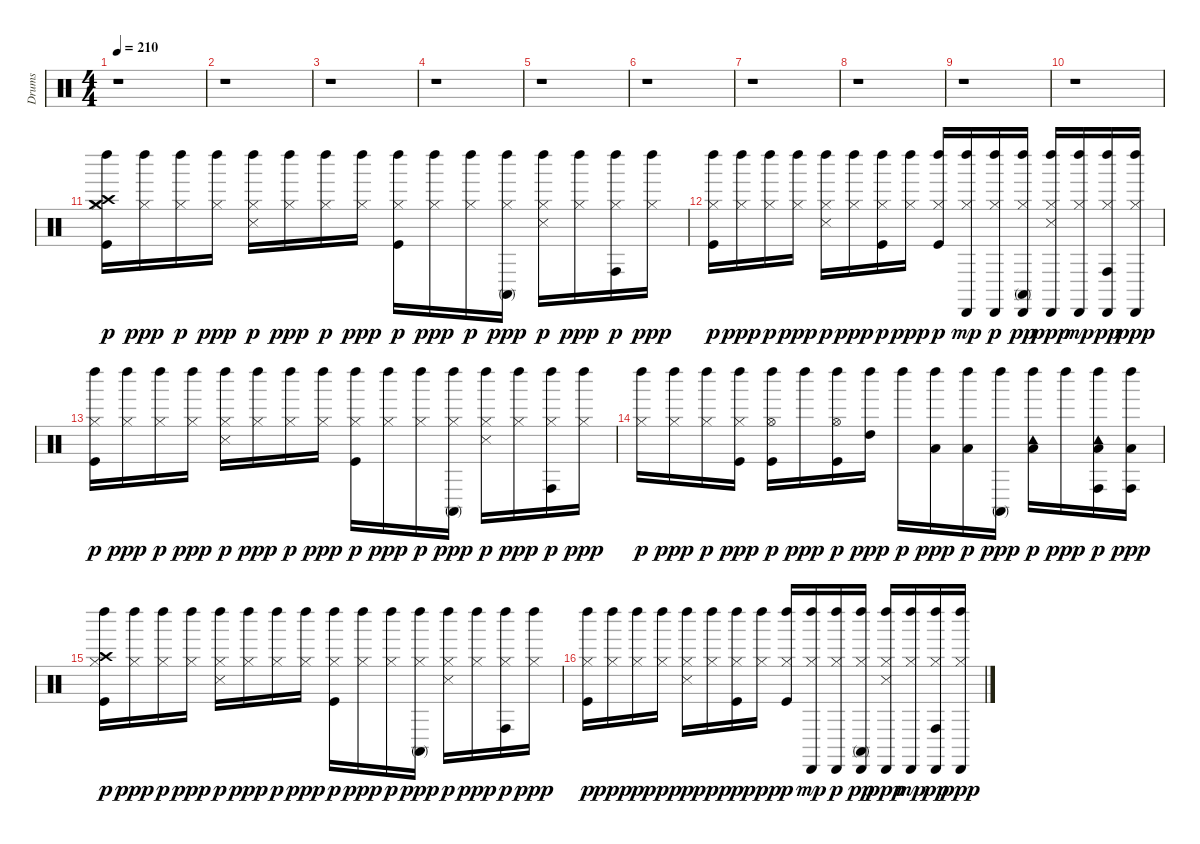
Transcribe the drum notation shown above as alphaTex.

\track ("Drums" "Drums") {instrument percussion}
\staff {score}
\articulation defaults
\ts (4 4)
\tempo 210
\clef neutral
\ks c
r.1{dy f} |
r.1 |
r.1 |
r.1 |
r.1 |
r.1 |
r.1 |
r.1 |
r.1 |
r.1 |
("Crash medium (hit)" "Kick (hit)" "Hi-Hat (closed)" "Crash high (hit)" "Left Maraca (hit)").16{dy p} ("Hi-Hat (closed)" "Left Maraca (hit)").16{dy ppp} ("Hi-Hat (closed)" "Left Maraca (hit)").16{dy p} ("Hi-Hat (closed)" "Left Maraca (hit)").16{dy ppp} ("Hi-Hat (closed)" "Snare (side stick) 3" "Left Maraca (hit)").16{dy p} ("Hi-Hat (closed)" "Left Maraca (hit)").16{dy ppp} ("Hi-Hat (closed)" "Left Maraca (hit)").16{dy p} ("Hi-Hat (closed)" "Left Maraca (hit)").16{dy ppp} ("Kick (hit)" "Hi-Hat (closed)" "Left Maraca (hit)").16{dy p} ("Hi-Hat (closed)" "Left Maraca (hit)").16{dy ppp} ("Hi-Hat (closed)" "Left Maraca (hit)").16{dy p} ("Hi-Hat (closed)" "Conga high (mute)" "Left Maraca (hit)").16{dy ppp} ("Hi-Hat (closed)" "Snare (side stick) 3" "Left Maraca (hit)").16{dy p} ("Hi-Hat (closed)" "Left Maraca (hit)").16{dy ppp} ("Hi-Hat (closed)" "Conga high (hit)" "Left Maraca (hit)").16{dy p} ("Hi-Hat (closed)" "Left Maraca (hit)").16{dy ppp} |
("Kick (hit)" "Hi-Hat (closed)" "Left Maraca (hit)").16{dy p} ("Hi-Hat (closed)" "Left Maraca (hit)").16{dy ppp} ("Hi-Hat (closed)" "Left Maraca (hit)").16{dy p} ("Hi-Hat (closed)" "Left Maraca (hit)").16{dy ppp} ("Hi-Hat (closed)" "Snare (side stick) 3" "Left Maraca (hit)").16{dy p} ("Hi-Hat (closed)" "Left Maraca (hit)").16{dy ppp} ("Kick (hit)" "Hi-Hat (closed)" "Left Maraca (hit)").16{dy p} ("Hi-Hat (closed)" "Left Maraca (hit)").16{dy ppp} ("Kick (hit)" "Hi-Hat (closed)" "Left Maraca (hit)").16{dy p} ("Hi-Hat (closed)" "Left Maraca (hit)" "Cabasa (hit)").16{dy mp} ("Hi-Hat (closed)" "Left Maraca (hit)" "Cabasa (hit)").16{dy p} ("Hi-Hat (closed)" "Conga high (mute)" "Left Maraca (hit)" "Cabasa (hit)").16{dy pp} ("Hi-Hat (closed)" "Snare (side stick) 3" "Left Maraca (hit)" "Cabasa (hit)").16{dy ppp} ("Hi-Hat (closed)" "Left Maraca (hit)" "Cabasa (hit)").16{dy mp} ("Hi-Hat (closed)" "Conga high (hit)" "Left Maraca (hit)" "Cabasa (hit)").16{dy pp} ("Hi-Hat (closed)" "Left Maraca (hit)" "Cabasa (hit)").16{dy ppp} |
("Kick (hit)" "Hi-Hat (closed)" "Left Maraca (hit)").16{dy p} ("Hi-Hat (closed)" "Left Maraca (hit)").16{dy ppp} ("Hi-Hat (closed)" "Left Maraca (hit)").16{dy p} ("Hi-Hat (closed)" "Left Maraca (hit)").16{dy ppp} ("Hi-Hat (closed)" "Snare (side stick) 3" "Left Maraca (hit)").16{dy p} ("Hi-Hat (closed)" "Left Maraca (hit)").16{dy ppp} ("Hi-Hat (closed)" "Left Maraca (hit)").16{dy p} ("Hi-Hat (closed)" "Left Maraca (hit)").16{dy ppp} ("Kick (hit)" "Hi-Hat (closed)" "Left Maraca (hit)").16{dy p} ("Hi-Hat (closed)" "Left Maraca (hit)").16{dy ppp} ("Hi-Hat (closed)" "Left Maraca (hit)").16{dy p} ("Hi-Hat (closed)" "Conga high (mute)" "Left Maraca (hit)").16{dy ppp} ("Hi-Hat (closed)" "Snare (side stick) 3" "Left Maraca (hit)").16{dy p} ("Hi-Hat (closed)" "Left Maraca (hit)").16{dy ppp} ("Hi-Hat (closed)" "Conga high (hit)" "Left Maraca (hit)").16{dy p} ("Hi-Hat (closed)" "Left Maraca (hit)").16{dy ppp} |
("Hi-Hat (closed)" "Left Maraca (hit)").16{dy p} ("Hi-Hat (closed)" "Left Maraca (hit)").16{dy ppp} ("Hi-Hat (closed)" "Left Maraca (hit)").16{dy p} ("Kick (hit)" "Hi-Hat (closed)" "Left Maraca (hit)").16{dy ppp} ("Kick (hit)" "Hi-Hat (open)" "Left Maraca (hit)").16{dy p} "Left Maraca (hit)".16{dy ppp} ("Kick (hit)" "Hi-Hat (open)" "Left Maraca (hit)").16{dy p} ("High Tom (hit)" "Left Maraca (hit)").16{dy ppp} "Left Maraca (hit)".16{dy p} ("Low Tom (hit)" "Left Maraca (hit)").16{dy ppp} ("Low Tom (hit)" "Left Maraca (hit)").16{dy p} ("Conga high (mute)" "Left Maraca (hit)").16{dy ppp} ("Low Tom (hit)" "Tambourine (hit)" "Left Maraca (hit)").16{dy p} "Left Maraca (hit)".16{dy ppp} ("Low Floor Tom (hit)" "Conga high (hit)" "Tambourine (hit)" "Left Maraca (hit)").16{dy p} ("Low Floor Tom (hit)" "Conga high (hit)" "Left Maraca (hit)").16{dy ppp} |
("Kick (hit)" "Hi-Hat (closed)" "Crash high (hit)" "Left Maraca (hit)").16{dy p} ("Hi-Hat (closed)" "Left Maraca (hit)").16{dy ppp} ("Hi-Hat (closed)" "Left Maraca (hit)").16{dy p} ("Hi-Hat (closed)" "Left Maraca (hit)").16{dy ppp} ("Hi-Hat (closed)" "Snare (side stick) 3" "Left Maraca (hit)").16{dy p} ("Hi-Hat (closed)" "Left Maraca (hit)").16{dy ppp} ("Hi-Hat (closed)" "Left Maraca (hit)").16{dy p} ("Hi-Hat (closed)" "Left Maraca (hit)").16{dy ppp} ("Kick (hit)" "Hi-Hat (closed)" "Left Maraca (hit)").16{dy p} ("Hi-Hat (closed)" "Left Maraca (hit)").16{dy ppp} ("Hi-Hat (closed)" "Left Maraca (hit)").16{dy p} ("Hi-Hat (closed)" "Conga high (mute)" "Left Maraca (hit)").16{dy ppp} ("Hi-Hat (closed)" "Snare (side stick) 3" "Left Maraca (hit)").16{dy p} ("Hi-Hat (closed)" "Left Maraca (hit)").16{dy ppp} ("Hi-Hat (closed)" "Conga high (hit)" "Left Maraca (hit)").16{dy p} ("Hi-Hat (closed)" "Left Maraca (hit)").16{dy ppp} |
("Kick (hit)" "Hi-Hat (closed)" "Left Maraca (hit)").16{dy p} ("Hi-Hat (closed)" "Left Maraca (hit)").16{dy ppp} ("Hi-Hat (closed)" "Left Maraca (hit)").16{dy p} ("Hi-Hat (closed)" "Left Maraca (hit)").16{dy ppp} ("Hi-Hat (closed)" "Snare (side stick) 3" "Left Maraca (hit)").16{dy p} ("Hi-Hat (closed)" "Left Maraca (hit)").16{dy ppp} ("Kick (hit)" "Hi-Hat (closed)" "Left Maraca (hit)").16{dy p} ("Hi-Hat (closed)" "Left Maraca (hit)").16{dy ppp} ("Kick (hit)" "Hi-Hat (closed)" "Left Maraca (hit)").16{dy p} ("Hi-Hat (closed)" "Left Maraca (hit)" "Cabasa (hit)").16{dy mp} ("Hi-Hat (closed)" "Left Maraca (hit)" "Cabasa (hit)").16{dy p} ("Hi-Hat (closed)" "Conga high (mute)" "Left Maraca (hit)" "Cabasa (hit)").16{dy pp} ("Hi-Hat (closed)" "Snare (side stick) 3" "Left Maraca (hit)" "Cabasa (hit)").16{dy ppp} ("Hi-Hat (closed)" "Left Maraca (hit)" "Cabasa (hit)").16{dy mp} ("Hi-Hat (closed)" "Conga high (hit)" "Left Maraca (hit)" "Cabasa (hit)").16{dy pp} ("Hi-Hat (closed)" "Left Maraca (hit)" "Cabasa (hit)").16{dy ppp}
